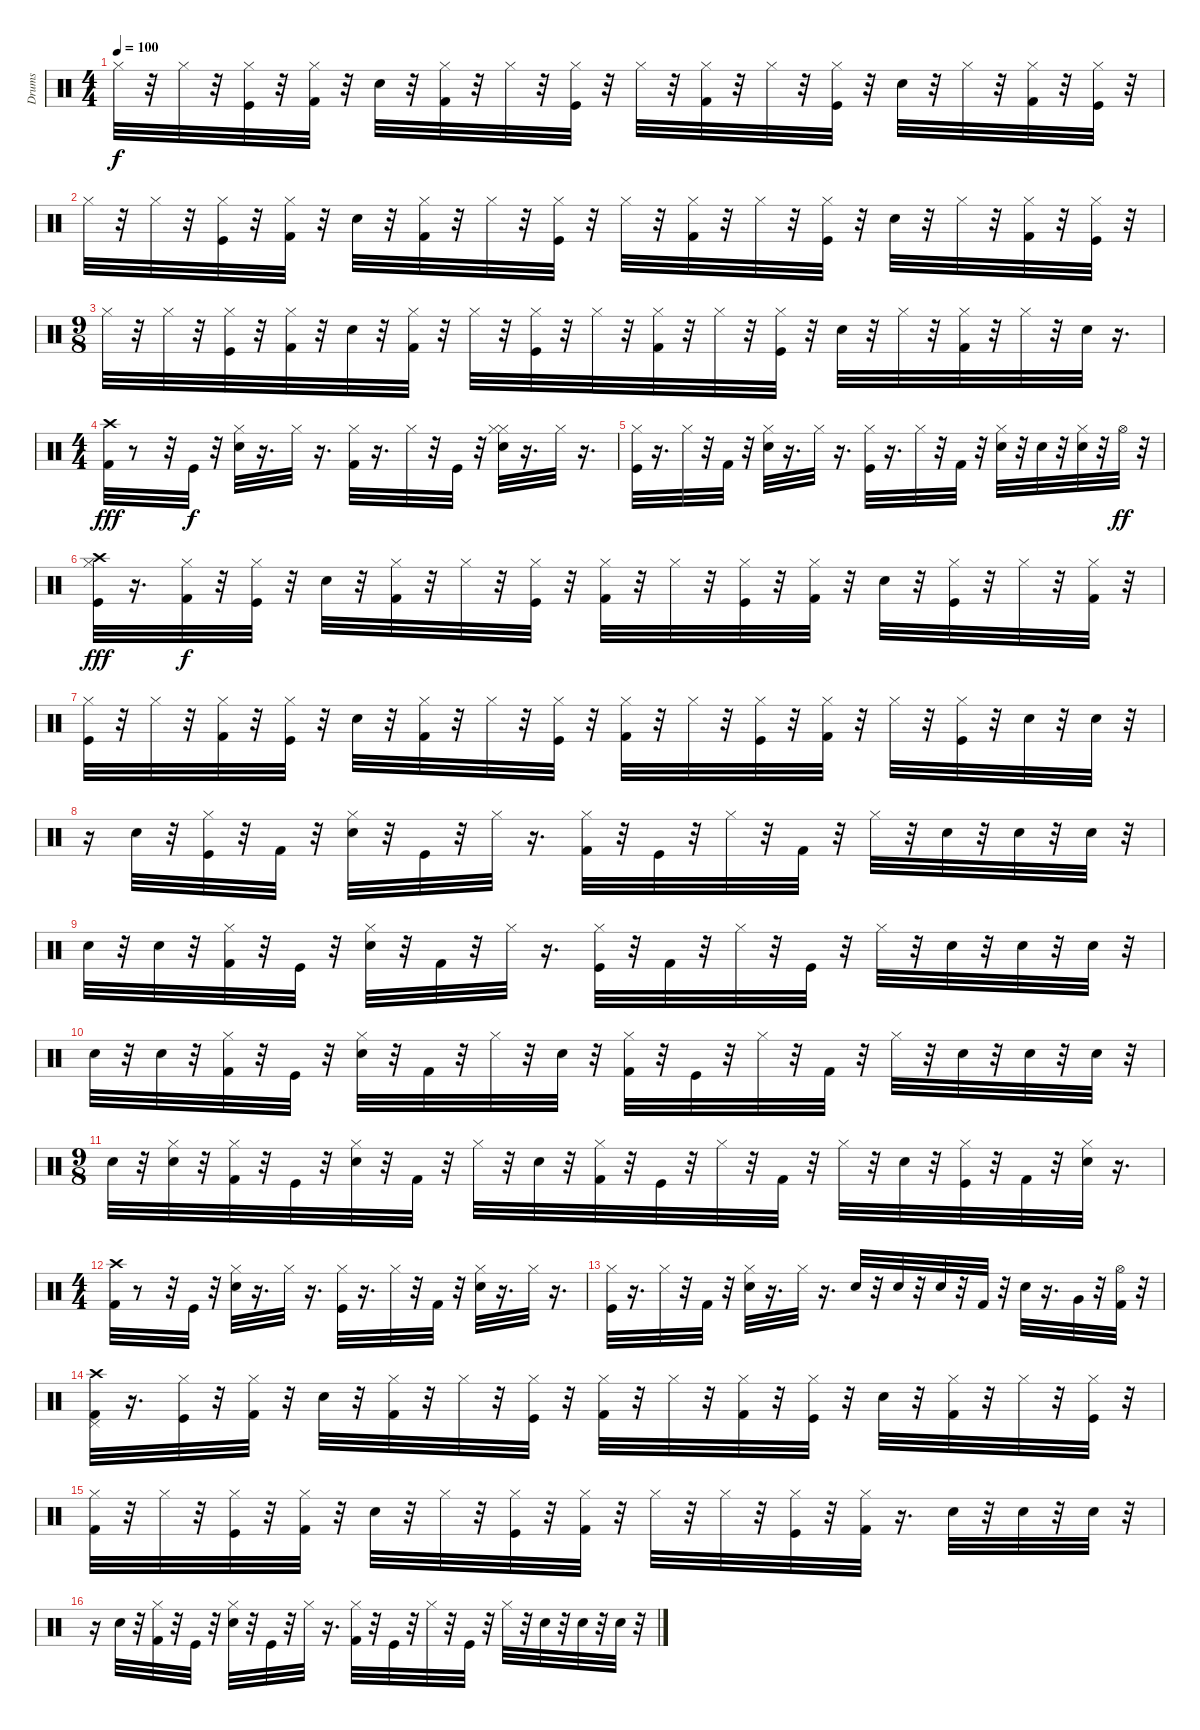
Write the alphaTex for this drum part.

\track ("Drums" "Drums") {instrument percussion}
\staff {score}
\articulation defaults
\ts (4 4)
\tempo 100
\clef neutral
\ks c "Hi-Hat (closed)".32{dy f}
r.32 "Hi-Hat (closed)".32 r.32 ("Hi-Hat (closed)" "Kick (hit)").32 r.32 ("Hi-Hat (closed)" "Kick (hit) 2").32 r.32 "Electric Snare (hit)".32 r.32 ("Hi-Hat (closed)" "Kick (hit) 2").32 r.32 "Hi-Hat (closed)".32 r.32 ("Hi-Hat (closed)" "Kick (hit)").32 r.32 "Hi-Hat (closed)".32 r.32 ("Hi-Hat (closed)" "Kick (hit) 2").32 r.32 "Hi-Hat (closed)".32 r.32 ("Hi-Hat (closed)" "Kick (hit)").32 r.32 "Electric Snare (hit)".32 r.32 "Hi-Hat (closed)".32 r.32 ("Hi-Hat (closed)" "Kick (hit) 2").32 r.32 ("Hi-Hat (closed)" "Kick (hit)").32 r.32 |
"Hi-Hat (closed)".32 r.32 "Hi-Hat (closed)".32 r.32 ("Hi-Hat (closed)" "Kick (hit)").32 r.32 ("Hi-Hat (closed)" "Kick (hit) 2").32 r.32 "Electric Snare (hit)".32 r.32 ("Hi-Hat (closed)" "Kick (hit) 2").32 r.32 "Hi-Hat (closed)".32 r.32 ("Hi-Hat (closed)" "Kick (hit)").32 r.32 "Hi-Hat (closed)".32 r.32 ("Hi-Hat (closed)" "Kick (hit) 2").32 r.32 "Hi-Hat (closed)".32 r.32 ("Hi-Hat (closed)" "Kick (hit)").32 r.32 "Electric Snare (hit)".32 r.32 "Hi-Hat (closed)".32 r.32 ("Hi-Hat (closed)" "Kick (hit) 2").32 r.32 ("Hi-Hat (closed)" "Kick (hit)").32 r.32 |
\ts (9 8)
"Hi-Hat (closed)".32 r.32 "Hi-Hat (closed)".32 r.32 ("Hi-Hat (closed)" "Kick (hit)").32 r.32 ("Hi-Hat (closed)" "Kick (hit) 2").32 r.32 "Electric Snare (hit)".32 r.32 ("Hi-Hat (closed)" "Kick (hit) 2").32 r.32 "Hi-Hat (closed)".32 r.32 ("Hi-Hat (closed)" "Kick (hit)").32 r.32 "Hi-Hat (closed)".32 r.32 ("Hi-Hat (closed)" "Kick (hit) 2").32 r.32 "Hi-Hat (closed)".32 r.32 ("Hi-Hat (closed)" "Kick (hit)").32 r.32 "Electric Snare (hit)".32 r.32 "Hi-Hat (closed)".32 r.32 ("Hi-Hat (closed)" "Kick (hit) 2").32 r.32 "Hi-Hat (closed)".32 r.32 "Electric Snare (hit)".32 r.16{d} |
\ts (4 4)
("Kick (hit) 2" "Crash high (hit)").32{dy fff} r.8 r.32 "Kick (hit)".32{dy f} r.32 ("Hi-Hat (closed)" "Electric Snare (hit)").32 r.16{d} "Hi-Hat (closed)".32 r.16{d} ("Hi-Hat (closed)" "Kick (hit) 2").32 r.16{d} "Hi-Hat (closed)".32 r.32 "Kick (hit)".32 r.32 ("Hi-Hat (closed)" "Hi-Hat (closed)" "Electric Snare (hit)").32 r.16{d} "Hi-Hat (closed)".32 r.16{d} |
("Hi-Hat (closed)" "Kick (hit)").32 r.16{d} "Hi-Hat (closed)".32 r.32 "Kick (hit) 2".32 r.32 ("Hi-Hat (closed)" "Electric Snare (hit)").32 r.16{d} "Hi-Hat (closed)".32 r.16{d} ("Hi-Hat (closed)" "Kick (hit)").32 r.16{d} "Hi-Hat (closed)".32 r.32 "Kick (hit) 2".32 r.32 ("Hi-Hat (closed)" "Electric Snare (hit)").32 r.32 "Electric Snare (hit)".32 r.32 ("Hi-Hat (closed)" "Electric Snare (hit)").32 r.32 "Hi-Hat (open)".32{dy ff} r.32 |
("Kick (hit)" "Hi-Hat (closed)" "Crash high (hit)").32{dy fff} r.16{d} ("Hi-Hat (closed)" "Kick (hit) 2").32{dy f} r.32 ("Hi-Hat (closed)" "Kick (hit)").32 r.32 "Electric Snare (hit)".32 r.32 ("Hi-Hat (closed)" "Kick (hit) 2").32 r.32 "Hi-Hat (closed)".32 r.32 ("Hi-Hat (closed)" "Kick (hit)").32 r.32 ("Hi-Hat (closed)" "Kick (hit) 2").32 r.32 "Hi-Hat (closed)".32 r.32 ("Hi-Hat (closed)" "Kick (hit)").32 r.32 ("Hi-Hat (closed)" "Kick (hit) 2").32 r.32 "Electric Snare (hit)".32 r.32 ("Hi-Hat (closed)" "Kick (hit)").32 r.32 "Hi-Hat (closed)".32 r.32 ("Hi-Hat (closed)" "Kick (hit) 2").32 r.32 |
("Kick (hit)" "Hi-Hat (closed)").32 r.32 "Hi-Hat (closed)".32 r.32 ("Kick (hit) 2" "Hi-Hat (closed)").32 r.32 ("Kick (hit)" "Hi-Hat (closed)").32 r.32 "Electric Snare (hit)".32 r.32 ("Kick (hit) 2" "Hi-Hat (closed)").32 r.32 "Hi-Hat (closed)".32 r.32 ("Kick (hit)" "Hi-Hat (closed)").32 r.32 ("Kick (hit) 2" "Hi-Hat (closed)").32 r.32 "Hi-Hat (closed)".32 r.32 ("Kick (hit)" "Hi-Hat (closed)").32 r.32 ("Kick (hit) 2" "Hi-Hat (closed)").32 r.32 "Hi-Hat (closed)".32 r.32 ("Kick (hit)" "Hi-Hat (closed)").32 r.32 "Electric Snare (hit)".32 r.32 "Electric Snare (hit)".32 r.32 |
r.16 "Electric Snare (hit)".32 r.32 ("Hi-Hat (closed)" "Kick (hit)").32 r.32 "Kick (hit) 2".32 r.32 ("Hi-Hat (closed)" "Electric Snare (hit)").32 r.32 "Kick (hit)".32 r.32 "Hi-Hat (closed)".32 r.16{d} ("Hi-Hat (closed)" "Kick (hit) 2").32 r.32 "Kick (hit)".32 r.32 "Hi-Hat (closed)".32 r.32 "Kick (hit) 2".32 r.32 "Hi-Hat (closed)".32 r.32 "Electric Snare (hit)".32 r.32 "Electric Snare (hit)".32 r.32 "Electric Snare (hit)".32 r.32 |
"Electric Snare (hit)".32 r.32 "Electric Snare (hit)".32 r.32 ("Hi-Hat (closed)" "Kick (hit) 2").32 r.32 "Kick (hit)".32 r.32 ("Hi-Hat (closed)" "Electric Snare (hit)").32 r.32 "Kick (hit) 2".32 r.32 "Hi-Hat (closed)".32 r.16{d} ("Hi-Hat (closed)" "Kick (hit)").32 r.32 "Kick (hit) 2".32 r.32 "Hi-Hat (closed)".32 r.32 "Kick (hit)".32 r.32 "Hi-Hat (closed)".32 r.32 "Electric Snare (hit)".32 r.32 "Electric Snare (hit)".32 r.32 "Electric Snare (hit)".32 r.32 |
"Electric Snare (hit)".32 r.32 "Electric Snare (hit)".32 r.32 ("Kick (hit) 2" "Hi-Hat (closed)").32 r.32 "Kick (hit)".32 r.32 ("Electric Snare (hit)" "Hi-Hat (closed)").32 r.32 "Kick (hit) 2".32 r.32 "Hi-Hat (closed)".32 r.32 "Snare (hit) 2".32 r.32 ("Kick (hit) 2" "Hi-Hat (closed)").32 r.32 "Kick (hit)".32 r.32 "Hi-Hat (closed)".32 r.32 "Kick (hit) 2".32 r.32 "Hi-Hat (closed)".32 r.32 "Snare (hit) 2".32 r.32 "Electric Snare (hit)".32 r.32 "Electric Snare (hit)".32 r.32 |
\ts (9 8)
"Electric Snare (hit)".32 r.32 ("Hi-Hat (closed)" "Electric Snare (hit)").32 r.32 ("Hi-Hat (closed)" "Kick (hit) 2").32 r.32 "Kick (hit)".32 r.32 ("Hi-Hat (closed)" "Electric Snare (hit)").32 r.32 "Kick (hit) 2".32 r.32 "Hi-Hat (closed)".32 r.32 "Electric Snare (hit)".32 r.32 ("Hi-Hat (closed)" "Kick (hit) 2").32 r.32 "Kick (hit)".32 r.32 "Hi-Hat (closed)".32 r.32 "Kick (hit) 2".32 r.32 "Hi-Hat (closed)".32 r.32 "Electric Snare (hit)".32 r.32 ("Hi-Hat (closed)" "Kick (hit)").32 r.32 "Kick (hit) 2".32 r.32 ("Hi-Hat (closed)" "Electric Snare (hit)").32 r.16{d} |
\ts (4 4)
("Kick (hit) 2" "Crash high (hit)").32 r.8 r.32 "Kick (hit)".32 r.32 ("Hi-Hat (closed)" "Electric Snare (hit)").32 r.16{d} "Hi-Hat (closed)".32 r.16{d} ("Hi-Hat (closed)" "Kick (hit)").32 r.16{d} "Hi-Hat (closed)".32 r.32 "Kick (hit) 2".32 r.32 ("Hi-Hat (closed)" "Electric Snare (hit)").32 r.16{d} "Hi-Hat (closed)".32 r.16{d} |
("Kick (hit)" "Hi-Hat (closed)").32 r.16{d} "Hi-Hat (closed)".32 r.32 "Kick (hit) 2".32 r.32 ("Electric Snare (hit)" "Hi-Hat (closed)").32 r.16{d} "Hi-Hat (closed)".32 r.16{d} "Electric Snare (hit)".32 r.32 "Electric Snare (hit)".32 r.32 "Electric Snare (hit)".32 r.32 "Kick (hit) 2".32 r.32 "Electric Snare (hit)".32 r.16{d} "Very Low Tom (hit)".32 r.32 ("Kick (hit) 2" "Hi-Hat (open)").32 r.32 |
("Kick (hit) 2" "Crash high (hit)" "Pedal Hi-Hat (hit)").32 r.16{d} ("Kick (hit)" "Hi-Hat (closed)").32 r.32 ("Kick (hit) 2" "Hi-Hat (closed)").32 r.32 "Electric Snare (hit)".32 r.32 ("Kick (hit) 2" "Hi-Hat (closed)").32 r.32 "Hi-Hat (closed)".32 r.32 ("Kick (hit)" "Hi-Hat (closed)").32 r.32 ("Kick (hit) 2" "Hi-Hat (closed)").32 r.32 "Hi-Hat (closed)".32 r.32 ("Kick (hit) 2" "Hi-Hat (closed)").32 r.32 ("Kick (hit)" "Hi-Hat (closed)").32 r.32 "Electric Snare (hit)".32 r.32 ("Kick (hit) 2" "Hi-Hat (closed)").32 r.32 "Hi-Hat (closed)".32 r.32 ("Kick (hit)" "Hi-Hat (closed)").32 r.32 |
("Kick (hit) 2" "Hi-Hat (closed)").32 r.32 "Hi-Hat (closed)".32 r.32 ("Kick (hit)" "Hi-Hat (closed)").32 r.32 ("Kick (hit) 2" "Hi-Hat (closed)").32 r.32 "Electric Snare (hit)".32 r.32 "Hi-Hat (closed)".32 r.32 ("Kick (hit)" "Hi-Hat (closed)").32 r.32 ("Kick (hit) 2" "Hi-Hat (closed)").32 r.32 "Hi-Hat (closed)".32 r.32 "Hi-Hat (closed)".32 r.32 ("Kick (hit)" "Hi-Hat (closed)").32 r.32 ("Kick (hit) 2" "Hi-Hat (closed)").32 r.16{d} "Electric Snare (hit)".32 r.32 "Electric Snare (hit)".32 r.32 "Electric Snare (hit)".32 r.32 |
r.16 "Snare (hit) 2".32 r.32 ("Hi-Hat (closed)" "Kick (hit) 2").32 r.32 "Kick (hit)".32 r.32 ("Hi-Hat (closed)" "Electric Snare (hit)").32 r.32 "Kick (hit)".32 r.32 "Hi-Hat (closed)".32 r.16{d} ("Hi-Hat (closed)" "Kick (hit) 2").32 r.32 "Kick (hit)".32 r.32 "Hi-Hat (closed)".32 r.32 "Kick (hit)".32 r.32 "Hi-Hat (closed)".32 r.32 "Electric Snare (hit)".32 r.32 "Electric Snare (hit)".32 r.32 "Electric Snare (hit)".32 r.32
